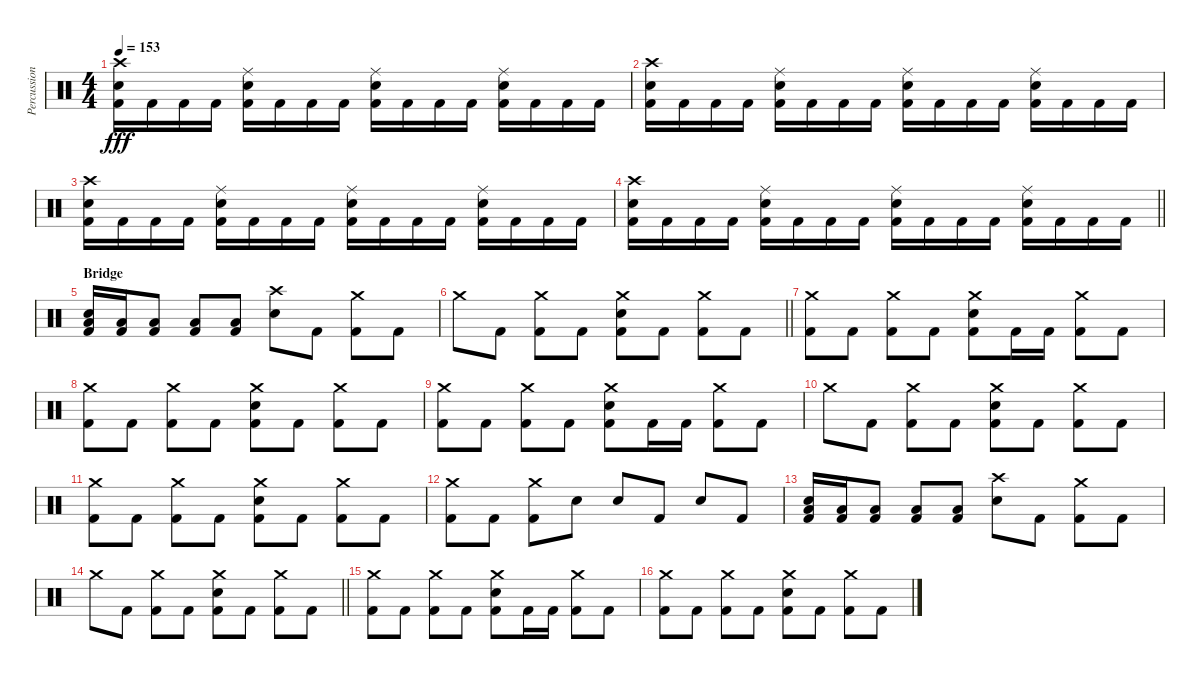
\track ("Percussion" "Percussion") {instrument percussion}
\staff {score}
\articulation defaults
\ts (4 4)
\tempo 153
\clef neutral
\ks c
("Crash high (hit)" "Snare (hit) 2" "Kick (hit) 2").16{dy fff} "Kick (hit) 2".16 "Kick (hit) 2".16 "Kick (hit) 2".16 ("Ride (middle)" "Snare (hit) 2" "Kick (hit) 2").16 "Kick (hit) 2".16 "Kick (hit) 2".16 "Kick (hit) 2".16 ("Ride (middle)" "Snare (hit) 2" "Kick (hit) 2").16 "Kick (hit) 2".16 "Kick (hit) 2".16 "Kick (hit) 2".16 ("Ride (middle)" "Snare (hit) 2" "Kick (hit) 2").16 "Kick (hit) 2".16 "Kick (hit) 2".16 "Kick (hit) 2".16 |
("Crash high (hit)" "Snare (hit) 2" "Kick (hit) 2").16 "Kick (hit) 2".16 "Kick (hit) 2".16 "Kick (hit) 2".16 ("Ride (middle)" "Snare (hit) 2" "Kick (hit) 2").16 "Kick (hit) 2".16 "Kick (hit) 2".16 "Kick (hit) 2".16 ("Ride (middle)" "Snare (hit) 2" "Kick (hit) 2").16 "Kick (hit) 2".16 "Kick (hit) 2".16 "Kick (hit) 2".16 ("Ride (middle)" "Snare (hit) 2" "Kick (hit) 2").16 "Kick (hit) 2".16 "Kick (hit) 2".16 "Kick (hit) 2".16 |
("Crash high (hit)" "Snare (hit) 2" "Kick (hit) 2").16 "Kick (hit) 2".16 "Kick (hit) 2".16 "Kick (hit) 2".16 ("Ride (middle)" "Snare (hit) 2" "Kick (hit) 2").16 "Kick (hit) 2".16 "Kick (hit) 2".16 "Kick (hit) 2".16 ("Ride (middle)" "Snare (hit) 2" "Kick (hit) 2").16 "Kick (hit) 2".16 "Kick (hit) 2".16 "Kick (hit) 2".16 ("Ride (middle)" "Snare (hit) 2" "Kick (hit) 2").16 "Kick (hit) 2".16 "Kick (hit) 2".16 "Kick (hit) 2".16 |
\barLineRight lightlight
("Crash high (hit)" "Snare (hit) 2" "Kick (hit) 2").16 "Kick (hit) 2".16 "Kick (hit) 2".16 "Kick (hit) 2".16 ("Ride (middle)" "Snare (hit) 2" "Kick (hit) 2").16 "Kick (hit) 2".16 "Kick (hit) 2".16 "Kick (hit) 2".16 ("Ride (middle)" "Snare (hit) 2" "Kick (hit) 2").16 "Kick (hit) 2".16 "Kick (hit) 2".16 "Kick (hit) 2".16 ("Ride (middle)" "Snare (hit) 2" "Kick (hit) 2").16 "Kick (hit) 2".16 "Kick (hit) 2".16 "Kick (hit) 2".16 |
\section ("" "Bridge")
("Low Floor Tom (hit)" "Snare (hit) 2" "Kick (hit) 2").16 ("Low Floor Tom (hit)" "Kick (hit) 2").16 ("Low Floor Tom (hit)" "Kick (hit) 2").8 ("Low Floor Tom (hit)" "Kick (hit) 2").8 ("Low Floor Tom (hit)" "Kick (hit) 2").8 ("Crash high (hit)" "Snare (hit) 2").8 "Kick (hit) 2".8 ("Crash medium (hit)" "Kick (hit) 2").8 "Kick (hit) 2".8 |
\barLineRight lightlight "Crash medium (hit)".8 "Kick (hit) 2".8
("Crash medium (hit)" "Kick (hit) 2").8 "Kick (hit) 2".8 ("Crash medium (hit)" "Snare (hit) 2" "Kick (hit) 2").8 "Kick (hit) 2".8 ("Crash medium (hit)" "Kick (hit) 2").8 "Kick (hit) 2".8 |
("Crash medium (hit)" "Kick (hit) 2").8 "Kick (hit) 2".8 ("Crash medium (hit)" "Kick (hit) 2").8 "Kick (hit) 2".8 ("Crash medium (hit)" "Snare (hit) 2" "Kick (hit) 2").8 "Kick (hit) 2".16 "Kick (hit) 2".16 ("Crash medium (hit)" "Kick (hit) 2").8 "Kick (hit) 2".8 |
("Crash medium (hit)" "Kick (hit) 2").8 "Kick (hit) 2".8 ("Crash medium (hit)" "Kick (hit) 2").8 "Kick (hit) 2".8 ("Crash medium (hit)" "Snare (hit) 2" "Kick (hit) 2").8 "Kick (hit) 2".8 ("Crash medium (hit)" "Kick (hit) 2").8 "Kick (hit) 2".8 |
("Crash medium (hit)" "Kick (hit) 2").8 "Kick (hit) 2".8 ("Crash medium (hit)" "Kick (hit) 2").8 "Kick (hit) 2".8 ("Crash medium (hit)" "Snare (hit) 2" "Kick (hit) 2").8 "Kick (hit) 2".16 "Kick (hit) 2".16 ("Crash medium (hit)" "Kick (hit) 2").8 "Kick (hit) 2".8 |
"Crash medium (hit)".8 "Kick (hit) 2".8 ("Crash medium (hit)" "Kick (hit) 2").8 "Kick (hit) 2".8 ("Crash medium (hit)" "Snare (hit) 2" "Kick (hit) 2").8 "Kick (hit) 2".8 ("Crash medium (hit)" "Kick (hit) 2").8 "Kick (hit) 2".8 |
("Crash medium (hit)" "Kick (hit) 2").8 "Kick (hit) 2".8 ("Crash medium (hit)" "Kick (hit) 2").8 "Kick (hit) 2".8 ("Crash medium (hit)" "Snare (hit) 2" "Kick (hit) 2").8 "Kick (hit) 2".8 ("Crash medium (hit)" "Kick (hit) 2").8 "Kick (hit) 2".8 |
("Crash medium (hit)" "Kick (hit) 2").8 "Kick (hit) 2".8 ("Crash medium (hit)" "Kick (hit) 2").8 "Snare (hit) 2".8 "Snare (hit) 2".8 "Kick (hit) 2".8 "Snare (hit) 2".8 "Kick (hit) 2".8 |
("Low Floor Tom (hit)" "Snare (hit) 2" "Kick (hit) 2").16 ("Low Floor Tom (hit)" "Kick (hit) 2").16 ("Low Floor Tom (hit)" "Kick (hit) 2").8 ("Low Floor Tom (hit)" "Kick (hit) 2").8 ("Low Floor Tom (hit)" "Kick (hit) 2").8 ("Crash high (hit)" "Snare (hit) 2").8 "Kick (hit) 2".8 ("Crash medium (hit)" "Kick (hit) 2").8 "Kick (hit) 2".8 |
\barLineRight lightlight "Crash medium (hit)".8 "Kick (hit) 2".8
("Crash medium (hit)" "Kick (hit) 2").8 "Kick (hit) 2".8 ("Crash medium (hit)" "Snare (hit) 2" "Kick (hit) 2").8 "Kick (hit) 2".8 ("Crash medium (hit)" "Kick (hit) 2").8 "Kick (hit) 2".8 |
("Crash medium (hit)" "Kick (hit) 2").8 "Kick (hit) 2".8 ("Crash medium (hit)" "Kick (hit) 2").8 "Kick (hit) 2".8 ("Crash medium (hit)" "Snare (hit) 2" "Kick (hit) 2").8 "Kick (hit) 2".16 "Kick (hit) 2".16 ("Crash medium (hit)" "Kick (hit) 2").8 "Kick (hit) 2".8 |
("Crash medium (hit)" "Kick (hit) 2").8 "Kick (hit) 2".8 ("Crash medium (hit)" "Kick (hit) 2").8 "Kick (hit) 2".8 ("Crash medium (hit)" "Snare (hit) 2" "Kick (hit) 2").8 "Kick (hit) 2".8 ("Crash medium (hit)" "Kick (hit) 2").8 "Kick (hit) 2".8
